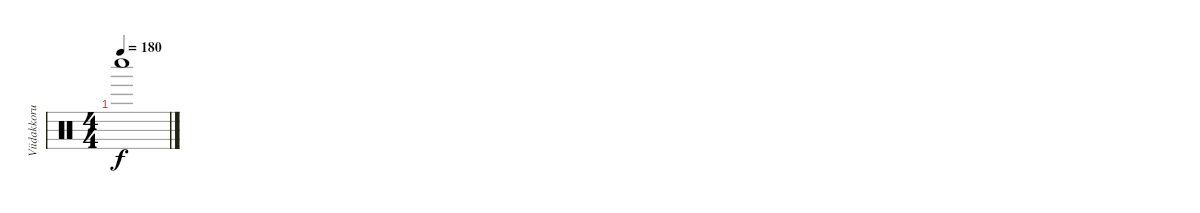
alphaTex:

\track ("Viidakkorummut" "Viidakkoru") {instrument percussion}
\staff {score}
\articulation defaults
\ts (4 4)
\tempo 180
\clef neutral
\ks c "Whistle low (hit)".1{dy f}
